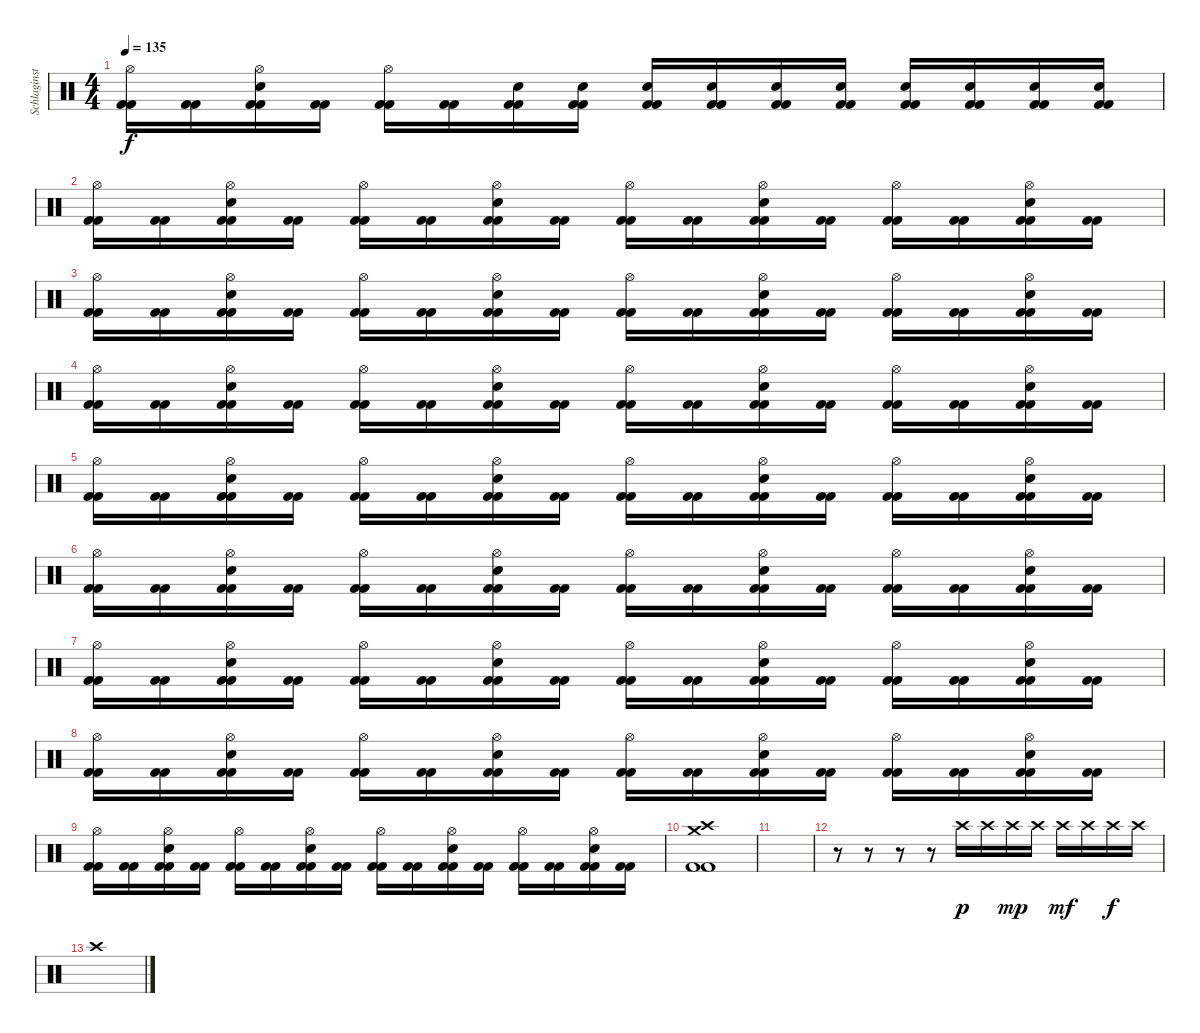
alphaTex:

\track ("Schlaginstrumente - Auswahl" "Schlaginst") {instrument percussion}
\staff {score}
\articulation defaults
\ts (4 4)
\tempo 135
\clef neutral
\ks c
("Hi-Hat (open)" "Kick (hit) 2" "Kick (hit) 2").16{dy f} ("Kick (hit) 2" "Kick (hit) 2").16 ("Hi-Hat (open)" "Snare (hit) 2" "Kick (hit) 2" "Kick (hit) 2").16 ("Kick (hit) 2" "Kick (hit) 2").16 ("Hi-Hat (open)" "Kick (hit) 2" "Kick (hit) 2").16 ("Kick (hit) 2" "Kick (hit) 2").16 ("Snare (hit) 2" "Kick (hit) 2" "Kick (hit) 2").16 ("Snare (hit) 2" "Kick (hit) 2" "Kick (hit) 2").16 ("Snare (hit) 2" "Kick (hit) 2" "Kick (hit) 2").16 ("Snare (hit) 2" "Kick (hit) 2" "Kick (hit) 2").16 ("Snare (hit) 2" "Kick (hit) 2" "Kick (hit) 2").16 ("Snare (hit) 2" "Kick (hit) 2" "Kick (hit) 2").16 ("Snare (hit) 2" "Kick (hit) 2" "Kick (hit) 2").16 ("Snare (hit) 2" "Kick (hit) 2" "Kick (hit) 2").16 ("Snare (hit) 2" "Kick (hit) 2" "Kick (hit) 2").16 ("Snare (hit) 2" "Kick (hit) 2" "Kick (hit) 2").16 |
("Hi-Hat (open)" "Kick (hit) 2" "Kick (hit) 2").16 ("Kick (hit) 2" "Kick (hit) 2").16 ("Hi-Hat (open)" "Snare (hit) 2" "Kick (hit) 2" "Kick (hit) 2").16 ("Kick (hit) 2" "Kick (hit) 2").16 ("Hi-Hat (open)" "Kick (hit) 2" "Kick (hit) 2").16 ("Kick (hit) 2" "Kick (hit) 2").16 ("Hi-Hat (open)" "Snare (hit) 2" "Kick (hit) 2" "Kick (hit) 2").16 ("Kick (hit) 2" "Kick (hit) 2").16 ("Hi-Hat (open)" "Kick (hit) 2" "Kick (hit) 2").16 ("Kick (hit) 2" "Kick (hit) 2").16 ("Hi-Hat (open)" "Snare (hit) 2" "Kick (hit) 2" "Kick (hit) 2").16 ("Kick (hit) 2" "Kick (hit) 2").16 ("Hi-Hat (open)" "Kick (hit) 2" "Kick (hit) 2").16 ("Kick (hit) 2" "Kick (hit) 2").16 ("Hi-Hat (open)" "Snare (hit) 2" "Kick (hit) 2" "Kick (hit) 2").16 ("Kick (hit) 2" "Kick (hit) 2").16 |
("Hi-Hat (open)" "Kick (hit) 2" "Kick (hit) 2").16 ("Kick (hit) 2" "Kick (hit) 2").16 ("Hi-Hat (open)" "Snare (hit) 2" "Kick (hit) 2" "Kick (hit) 2").16 ("Kick (hit) 2" "Kick (hit) 2").16 ("Hi-Hat (open)" "Kick (hit) 2" "Kick (hit) 2").16 ("Kick (hit) 2" "Kick (hit) 2").16 ("Hi-Hat (open)" "Snare (hit) 2" "Kick (hit) 2" "Kick (hit) 2").16 ("Kick (hit) 2" "Kick (hit) 2").16 ("Hi-Hat (open)" "Kick (hit) 2" "Kick (hit) 2").16 ("Kick (hit) 2" "Kick (hit) 2").16 ("Hi-Hat (open)" "Snare (hit) 2" "Kick (hit) 2" "Kick (hit) 2").16 ("Kick (hit) 2" "Kick (hit) 2").16 ("Hi-Hat (open)" "Kick (hit) 2" "Kick (hit) 2").16 ("Kick (hit) 2" "Kick (hit) 2").16 ("Hi-Hat (open)" "Snare (hit) 2" "Kick (hit) 2" "Kick (hit) 2").16 ("Kick (hit) 2" "Kick (hit) 2").16 |
("Hi-Hat (open)" "Kick (hit) 2" "Kick (hit) 2").16 ("Kick (hit) 2" "Kick (hit) 2").16 ("Hi-Hat (open)" "Snare (hit) 2" "Kick (hit) 2" "Kick (hit) 2").16 ("Kick (hit) 2" "Kick (hit) 2").16 ("Hi-Hat (open)" "Kick (hit) 2" "Kick (hit) 2").16 ("Kick (hit) 2" "Kick (hit) 2").16 ("Hi-Hat (open)" "Snare (hit) 2" "Kick (hit) 2" "Kick (hit) 2").16 ("Kick (hit) 2" "Kick (hit) 2").16 ("Hi-Hat (open)" "Kick (hit) 2" "Kick (hit) 2").16 ("Kick (hit) 2" "Kick (hit) 2").16 ("Hi-Hat (open)" "Snare (hit) 2" "Kick (hit) 2" "Kick (hit) 2").16 ("Kick (hit) 2" "Kick (hit) 2").16 ("Hi-Hat (open)" "Kick (hit) 2" "Kick (hit) 2").16 ("Kick (hit) 2" "Kick (hit) 2").16 ("Hi-Hat (open)" "Snare (hit) 2" "Kick (hit) 2" "Kick (hit) 2").16 ("Kick (hit) 2" "Kick (hit) 2").16 |
("Hi-Hat (open)" "Kick (hit) 2" "Kick (hit) 2").16 ("Kick (hit) 2" "Kick (hit) 2").16 ("Hi-Hat (open)" "Snare (hit) 2" "Kick (hit) 2" "Kick (hit) 2").16 ("Kick (hit) 2" "Kick (hit) 2").16 ("Hi-Hat (open)" "Kick (hit) 2" "Kick (hit) 2").16 ("Kick (hit) 2" "Kick (hit) 2").16 ("Hi-Hat (open)" "Snare (hit) 2" "Kick (hit) 2" "Kick (hit) 2").16 ("Kick (hit) 2" "Kick (hit) 2").16 ("Hi-Hat (open)" "Kick (hit) 2" "Kick (hit) 2").16 ("Kick (hit) 2" "Kick (hit) 2").16 ("Hi-Hat (open)" "Snare (hit) 2" "Kick (hit) 2" "Kick (hit) 2").16 ("Kick (hit) 2" "Kick (hit) 2").16 ("Hi-Hat (open)" "Kick (hit) 2" "Kick (hit) 2").16 ("Kick (hit) 2" "Kick (hit) 2").16 ("Hi-Hat (open)" "Snare (hit) 2" "Kick (hit) 2" "Kick (hit) 2").16 ("Kick (hit) 2" "Kick (hit) 2").16 |
("Hi-Hat (open)" "Kick (hit) 2" "Kick (hit) 2").16 ("Kick (hit) 2" "Kick (hit) 2").16 ("Hi-Hat (open)" "Snare (hit) 2" "Kick (hit) 2" "Kick (hit) 2").16 ("Kick (hit) 2" "Kick (hit) 2").16 ("Hi-Hat (open)" "Kick (hit) 2" "Kick (hit) 2").16 ("Kick (hit) 2" "Kick (hit) 2").16 ("Hi-Hat (open)" "Snare (hit) 2" "Kick (hit) 2" "Kick (hit) 2").16 ("Kick (hit) 2" "Kick (hit) 2").16 ("Hi-Hat (open)" "Kick (hit) 2" "Kick (hit) 2").16 ("Kick (hit) 2" "Kick (hit) 2").16 ("Hi-Hat (open)" "Snare (hit) 2" "Kick (hit) 2" "Kick (hit) 2").16 ("Kick (hit) 2" "Kick (hit) 2").16 ("Hi-Hat (open)" "Kick (hit) 2" "Kick (hit) 2").16 ("Kick (hit) 2" "Kick (hit) 2").16 ("Hi-Hat (open)" "Snare (hit) 2" "Kick (hit) 2" "Kick (hit) 2").16 ("Kick (hit) 2" "Kick (hit) 2").16 |
("Hi-Hat (open)" "Kick (hit) 2" "Kick (hit) 2").16 ("Kick (hit) 2" "Kick (hit) 2").16 ("Hi-Hat (open)" "Snare (hit) 2" "Kick (hit) 2" "Kick (hit) 2").16 ("Kick (hit) 2" "Kick (hit) 2").16 ("Hi-Hat (open)" "Kick (hit) 2" "Kick (hit) 2").16 ("Kick (hit) 2" "Kick (hit) 2").16 ("Hi-Hat (open)" "Snare (hit) 2" "Kick (hit) 2" "Kick (hit) 2").16 ("Kick (hit) 2" "Kick (hit) 2").16 ("Hi-Hat (open)" "Kick (hit) 2" "Kick (hit) 2").16 ("Kick (hit) 2" "Kick (hit) 2").16 ("Hi-Hat (open)" "Snare (hit) 2" "Kick (hit) 2" "Kick (hit) 2").16 ("Kick (hit) 2" "Kick (hit) 2").16 ("Hi-Hat (open)" "Kick (hit) 2" "Kick (hit) 2").16 ("Kick (hit) 2" "Kick (hit) 2").16 ("Hi-Hat (open)" "Snare (hit) 2" "Kick (hit) 2" "Kick (hit) 2").16 ("Kick (hit) 2" "Kick (hit) 2").16 |
("Hi-Hat (open)" "Kick (hit) 2" "Kick (hit) 2").16 ("Kick (hit) 2" "Kick (hit) 2").16 ("Hi-Hat (open)" "Snare (hit) 2" "Kick (hit) 2" "Kick (hit) 2").16 ("Kick (hit) 2" "Kick (hit) 2").16 ("Hi-Hat (open)" "Kick (hit) 2" "Kick (hit) 2").16 ("Kick (hit) 2" "Kick (hit) 2").16 ("Hi-Hat (open)" "Snare (hit) 2" "Kick (hit) 2" "Kick (hit) 2").16 ("Kick (hit) 2" "Kick (hit) 2").16 ("Hi-Hat (open)" "Kick (hit) 2" "Kick (hit) 2").16 ("Kick (hit) 2" "Kick (hit) 2").16 ("Hi-Hat (open)" "Snare (hit) 2" "Kick (hit) 2" "Kick (hit) 2").16 ("Kick (hit) 2" "Kick (hit) 2").16 ("Hi-Hat (open)" "Kick (hit) 2" "Kick (hit) 2").16 ("Kick (hit) 2" "Kick (hit) 2").16 ("Hi-Hat (open)" "Snare (hit) 2" "Kick (hit) 2" "Kick (hit) 2").16 ("Kick (hit) 2" "Kick (hit) 2").16 |
("Hi-Hat (open)" "Kick (hit) 2" "Kick (hit) 2").16 ("Kick (hit) 2" "Kick (hit) 2").16 ("Hi-Hat (open)" "Snare (hit) 2" "Kick (hit) 2" "Kick (hit) 2").16 ("Kick (hit) 2" "Kick (hit) 2").16 ("Hi-Hat (open)" "Kick (hit) 2" "Kick (hit) 2").16 ("Kick (hit) 2" "Kick (hit) 2").16 ("Hi-Hat (open)" "Snare (hit) 2" "Kick (hit) 2" "Kick (hit) 2").16 ("Kick (hit) 2" "Kick (hit) 2").16 ("Hi-Hat (open)" "Kick (hit) 2" "Kick (hit) 2").16 ("Kick (hit) 2" "Kick (hit) 2").16 ("Hi-Hat (open)" "Snare (hit) 2" "Kick (hit) 2" "Kick (hit) 2").16 ("Kick (hit) 2" "Kick (hit) 2").16 ("Hi-Hat (open)" "Kick (hit) 2" "Kick (hit) 2").16 ("Kick (hit) 2" "Kick (hit) 2").16 ("Hi-Hat (open)" "Snare (hit) 2" "Kick (hit) 2" "Kick (hit) 2").16 ("Kick (hit) 2" "Kick (hit) 2").16 |
("Crash high (hit)" "Crash medium (hit)" "Kick (hit) 2" "Kick (hit) 2").1 |
|
r.8 r.8 r.8 r.8 "Crash high (hit)".16{dy p} "Crash high (hit)".16 "Crash high (hit)".16{dy mp} "Crash high (hit)".16 "Crash high (hit)".16{dy mf} "Crash high (hit)".16 "Crash high (hit)".16{dy f} "Crash high (hit)".16 |
"Crash high (hit)".1
